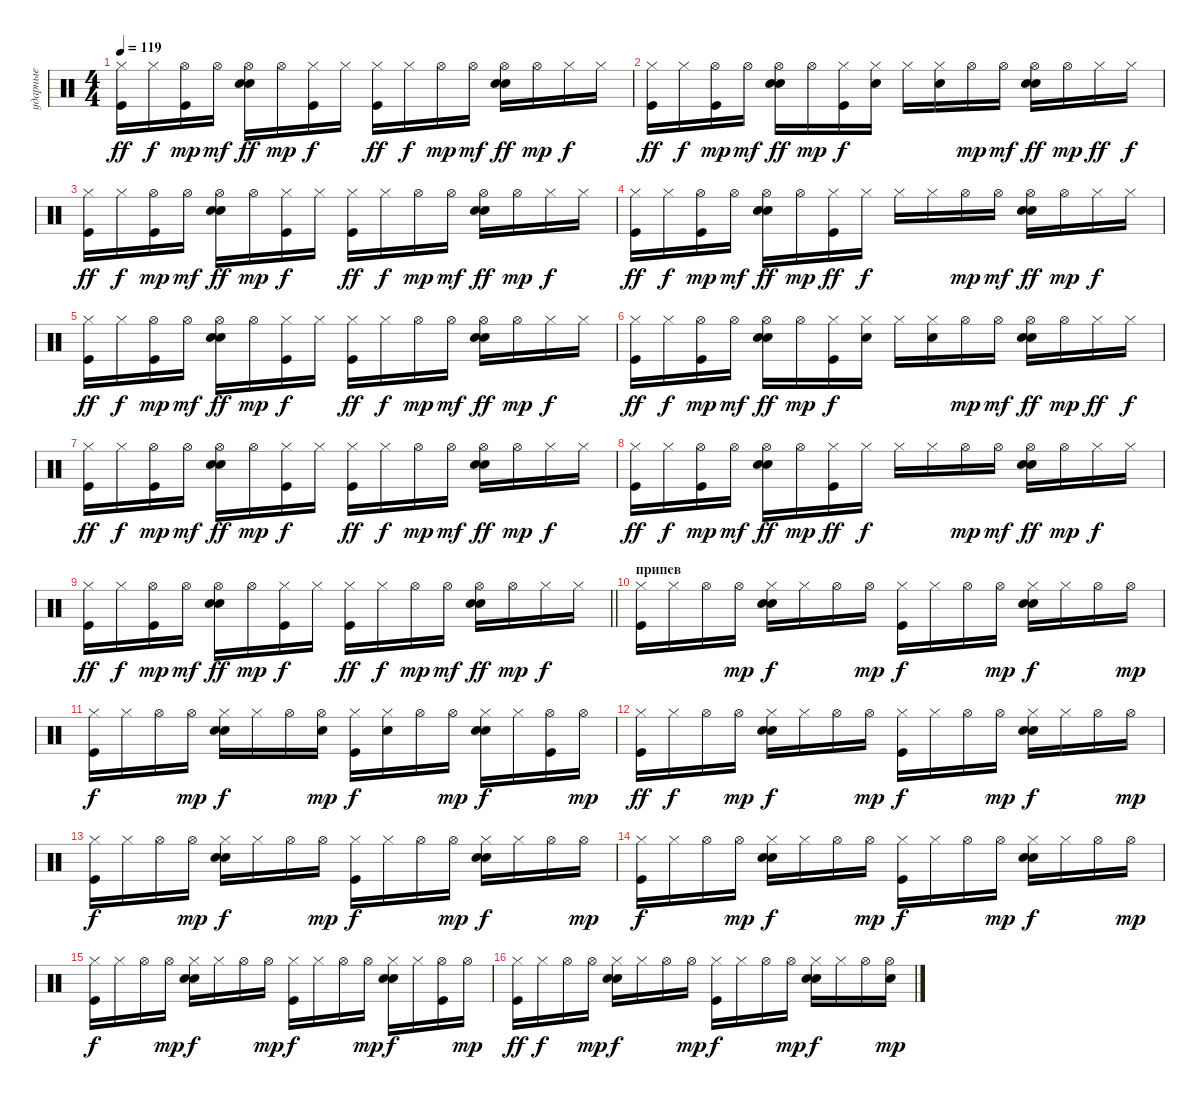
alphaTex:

\track ("ударные" "ударные") {instrument percussion}
\staff {score}
\articulation defaults
\ts (4 4)
\tempo 119
\clef neutral
\ks c
("Kick (hit)" "Hi-Hat (closed)").16{dy ff} "Hi-Hat (closed)".16{dy f} ("Kick (hit)" "Hi-Hat (open)").16{dy mp} "Hi-Hat (open)".16{dy mf} ("Electric Snare (hit)" "Hi-Hat (open)" "Hand Clap (hit)").16{dy ff} "Hi-Hat (open)".16{dy mp} ("Kick (hit)" "Hi-Hat (closed)").16{dy f} "Hi-Hat (closed)".16 ("Kick (hit)" "Hi-Hat (closed)").16{dy ff} "Hi-Hat (closed)".16{dy f} "Hi-Hat (open)".16{dy mp} "Hi-Hat (open)".16{dy mf} ("Electric Snare (hit)" "Hi-Hat (open)" "Hand Clap (hit)").16{dy ff} "Hi-Hat (open)".16{dy mp} "Hi-Hat (closed)".16{dy f} "Hi-Hat (closed)".16 |
("Kick (hit)" "Hi-Hat (closed)").16{dy ff} "Hi-Hat (closed)".16{dy f} ("Kick (hit)" "Hi-Hat (open)").16{dy mp} "Hi-Hat (open)".16{dy mf} ("Electric Snare (hit)" "Hi-Hat (open)" "Hand Clap (hit)").16{dy ff} "Hi-Hat (open)".16{dy mp} ("Kick (hit)" "Hi-Hat (closed)").16{dy f} ("Electric Snare (hit)" "Hi-Hat (closed)").16 "Hi-Hat (closed)".16 ("Electric Snare (hit)" "Hi-Hat (closed)").16 "Hi-Hat (open)".16{dy mp} "Hi-Hat (open)".16{dy mf} ("Hi-Hat (open)" "Electric Snare (hit)" "Hand Clap (hit)").16{dy ff} "Hi-Hat (open)".16{dy mp} "Hi-Hat (closed)".16{dy ff} "Hi-Hat (closed)".16{dy f} |
("Kick (hit)" "Hi-Hat (closed)").16{dy ff} "Hi-Hat (closed)".16{dy f} ("Kick (hit)" "Hi-Hat (open)").16{dy mp} "Hi-Hat (open)".16{dy mf} ("Electric Snare (hit)" "Hi-Hat (open)" "Hand Clap (hit)").16{dy ff} "Hi-Hat (open)".16{dy mp} ("Kick (hit)" "Hi-Hat (closed)").16{dy f} "Hi-Hat (closed)".16 ("Kick (hit)" "Hi-Hat (closed)").16{dy ff} "Hi-Hat (closed)".16{dy f} "Hi-Hat (open)".16{dy mp} "Hi-Hat (open)".16{dy mf} ("Electric Snare (hit)" "Hi-Hat (open)" "Hand Clap (hit)").16{dy ff} "Hi-Hat (open)".16{dy mp} "Hi-Hat (closed)".16{dy f} "Hi-Hat (closed)".16 |
("Kick (hit)" "Hi-Hat (closed)").16{dy ff} "Hi-Hat (closed)".16{dy f} ("Kick (hit)" "Hi-Hat (open)").16{dy mp} "Hi-Hat (open)".16{dy mf} ("Electric Snare (hit)" "Hi-Hat (open)" "Hand Clap (hit)").16{dy ff} "Hi-Hat (open)".16{dy mp} ("Kick (hit)" "Hi-Hat (closed)").16{dy ff} "Hi-Hat (closed)".16{dy f} "Hi-Hat (closed)".16 "Hi-Hat (closed)".16 "Hi-Hat (open)".16{dy mp} "Hi-Hat (open)".16{dy mf} ("Electric Snare (hit)" "Hi-Hat (open)" "Hand Clap (hit)").16{dy ff} "Hi-Hat (open)".16{dy mp} "Hi-Hat (closed)".16{dy f} "Hi-Hat (closed)".16 |
("Kick (hit)" "Hi-Hat (closed)").16{dy ff} "Hi-Hat (closed)".16{dy f} ("Kick (hit)" "Hi-Hat (open)").16{dy mp} "Hi-Hat (open)".16{dy mf} ("Electric Snare (hit)" "Hi-Hat (open)" "Hand Clap (hit)").16{dy ff} "Hi-Hat (open)".16{dy mp} ("Kick (hit)" "Hi-Hat (closed)").16{dy f} "Hi-Hat (closed)".16 ("Kick (hit)" "Hi-Hat (closed)").16{dy ff} "Hi-Hat (closed)".16{dy f} "Hi-Hat (open)".16{dy mp} "Hi-Hat (open)".16{dy mf} ("Electric Snare (hit)" "Hi-Hat (open)" "Hand Clap (hit)").16{dy ff} "Hi-Hat (open)".16{dy mp} "Hi-Hat (closed)".16{dy f} "Hi-Hat (closed)".16 |
("Kick (hit)" "Hi-Hat (closed)").16{dy ff} "Hi-Hat (closed)".16{dy f} ("Kick (hit)" "Hi-Hat (open)").16{dy mp} "Hi-Hat (open)".16{dy mf} ("Electric Snare (hit)" "Hi-Hat (open)" "Hand Clap (hit)").16{dy ff} "Hi-Hat (open)".16{dy mp} ("Kick (hit)" "Hi-Hat (closed)").16{dy f} ("Electric Snare (hit)" "Hi-Hat (closed)").16 "Hi-Hat (closed)".16 ("Electric Snare (hit)" "Hi-Hat (closed)").16 "Hi-Hat (open)".16{dy mp} "Hi-Hat (open)".16{dy mf} ("Hi-Hat (open)" "Electric Snare (hit)" "Hand Clap (hit)").16{dy ff} "Hi-Hat (open)".16{dy mp} "Hi-Hat (closed)".16{dy ff} "Hi-Hat (closed)".16{dy f} |
("Kick (hit)" "Hi-Hat (closed)").16{dy ff} "Hi-Hat (closed)".16{dy f} ("Kick (hit)" "Hi-Hat (open)").16{dy mp} "Hi-Hat (open)".16{dy mf} ("Electric Snare (hit)" "Hi-Hat (open)" "Hand Clap (hit)").16{dy ff} "Hi-Hat (open)".16{dy mp} ("Kick (hit)" "Hi-Hat (closed)").16{dy f} "Hi-Hat (closed)".16 ("Kick (hit)" "Hi-Hat (closed)").16{dy ff} "Hi-Hat (closed)".16{dy f} "Hi-Hat (open)".16{dy mp} "Hi-Hat (open)".16{dy mf} ("Electric Snare (hit)" "Hi-Hat (open)" "Hand Clap (hit)").16{dy ff} "Hi-Hat (open)".16{dy mp} "Hi-Hat (closed)".16{dy f} "Hi-Hat (closed)".16 |
("Kick (hit)" "Hi-Hat (closed)").16{dy ff} "Hi-Hat (closed)".16{dy f} ("Kick (hit)" "Hi-Hat (open)").16{dy mp} "Hi-Hat (open)".16{dy mf} ("Electric Snare (hit)" "Hi-Hat (open)" "Hand Clap (hit)").16{dy ff} "Hi-Hat (open)".16{dy mp} ("Kick (hit)" "Hi-Hat (closed)").16{dy ff} "Hi-Hat (closed)".16{dy f} "Hi-Hat (closed)".16 "Hi-Hat (closed)".16 "Hi-Hat (open)".16{dy mp} "Hi-Hat (open)".16{dy mf} ("Electric Snare (hit)" "Hi-Hat (open)" "Hand Clap (hit)").16{dy ff} "Hi-Hat (open)".16{dy mp} "Hi-Hat (closed)".16{dy f} "Hi-Hat (closed)".16 |
\barLineRight lightlight
("Kick (hit)" "Hi-Hat (closed)").16{dy ff} "Hi-Hat (closed)".16{dy f} ("Kick (hit)" "Hi-Hat (open)").16{dy mp} "Hi-Hat (open)".16{dy mf} ("Electric Snare (hit)" "Hi-Hat (open)" "Hand Clap (hit)").16{dy ff} "Hi-Hat (open)".16{dy mp} ("Kick (hit)" "Hi-Hat (closed)").16{dy f} "Hi-Hat (closed)".16 ("Kick (hit)" "Hi-Hat (closed)").16{dy ff} "Hi-Hat (closed)".16{dy f} "Hi-Hat (open)".16{dy mp} "Hi-Hat (open)".16{dy mf} ("Electric Snare (hit)" "Hi-Hat (open)" "Hand Clap (hit)").16{dy ff} "Hi-Hat (open)".16{dy mp} "Hi-Hat (closed)".16{dy f} "Hi-Hat (closed)".16 |
\section ("" "припев")
("Hi-Hat (closed)" "Kick (hit)").16 "Hi-Hat (closed)".16 "Hi-Hat (open)".16 "Hi-Hat (open)".16{dy mp} ("Hi-Hat (closed)" "Electric Snare (hit)" "Hand Clap (hit)").16{dy f} "Hi-Hat (closed)".16 "Hi-Hat (open)".16 "Hi-Hat (open)".16{dy mp} ("Kick (hit)" "Hi-Hat (closed)").16{dy f} "Hi-Hat (closed)".16 "Hi-Hat (open)".16 "Hi-Hat (open)".16{dy mp} ("Hi-Hat (closed)" "Electric Snare (hit)" "Hand Clap (hit)").16{dy f} "Hi-Hat (closed)".16 "Hi-Hat (open)".16 "Hi-Hat (open)".16{dy mp} |
("Hi-Hat (closed)" "Kick (hit)").16{dy f} "Hi-Hat (closed)".16 "Hi-Hat (open)".16 "Hi-Hat (open)".16{dy mp} ("Hi-Hat (closed)" "Electric Snare (hit)" "Hand Clap (hit)").16{dy f} "Hi-Hat (closed)".16 "Hi-Hat (open)".16 ("Electric Snare (hit)" "Hi-Hat (open)").16{dy mp} ("Kick (hit)" "Hi-Hat (closed)").16{dy f} ("Electric Snare (hit)" "Hi-Hat (closed)").16 "Hi-Hat (open)".16 "Hi-Hat (open)".16{dy mp} ("Hi-Hat (closed)" "Electric Snare (hit)" "Hand Clap (hit)").16{dy f} "Hi-Hat (closed)".16 ("Kick (hit)" "Hi-Hat (open)").16 "Hi-Hat (open)".16{dy mp} |
("Hi-Hat (closed)" "Kick (hit)").16{dy ff} "Hi-Hat (closed)".16{dy f} "Hi-Hat (open)".16 "Hi-Hat (open)".16{dy mp} ("Hi-Hat (closed)" "Electric Snare (hit)" "Hand Clap (hit)").16{dy f} "Hi-Hat (closed)".16 "Hi-Hat (open)".16 "Hi-Hat (open)".16{dy mp} ("Kick (hit)" "Hi-Hat (closed)").16{dy f} "Hi-Hat (closed)".16 "Hi-Hat (open)".16 "Hi-Hat (open)".16{dy mp} ("Hi-Hat (closed)" "Electric Snare (hit)" "Hand Clap (hit)").16{dy f} "Hi-Hat (closed)".16 "Hi-Hat (open)".16 "Hi-Hat (open)".16{dy mp} |
("Hi-Hat (closed)" "Kick (hit)").16{dy f} "Hi-Hat (closed)".16 "Hi-Hat (open)".16 "Hi-Hat (open)".16{dy mp} ("Hi-Hat (closed)" "Electric Snare (hit)" "Hand Clap (hit)").16{dy f} "Hi-Hat (closed)".16 "Hi-Hat (open)".16 "Hi-Hat (open)".16{dy mp} ("Kick (hit)" "Hi-Hat (closed)").16{dy f} "Hi-Hat (closed)".16 "Hi-Hat (open)".16 "Hi-Hat (open)".16{dy mp} ("Hi-Hat (closed)" "Electric Snare (hit)" "Hand Clap (hit)").16{dy f} "Hi-Hat (closed)".16 "Hi-Hat (open)".16 "Hi-Hat (open)".16{dy mp} |
("Hi-Hat (closed)" "Kick (hit)").16{dy f} "Hi-Hat (closed)".16 "Hi-Hat (open)".16 "Hi-Hat (open)".16{dy mp} ("Hi-Hat (closed)" "Electric Snare (hit)" "Hand Clap (hit)").16{dy f} "Hi-Hat (closed)".16 "Hi-Hat (open)".16 "Hi-Hat (open)".16{dy mp} ("Kick (hit)" "Hi-Hat (closed)").16{dy f} "Hi-Hat (closed)".16 "Hi-Hat (open)".16 "Hi-Hat (open)".16{dy mp} ("Hi-Hat (closed)" "Electric Snare (hit)" "Hand Clap (hit)").16{dy f} "Hi-Hat (closed)".16 "Hi-Hat (open)".16 "Hi-Hat (open)".16{dy mp} |
("Hi-Hat (closed)" "Kick (hit)").16{dy f} "Hi-Hat (closed)".16 "Hi-Hat (open)".16 "Hi-Hat (open)".16{dy mp} ("Electric Snare (hit)" "Hi-Hat (closed)" "Hand Clap (hit)").16{dy f} "Hi-Hat (closed)".16 "Hi-Hat (open)".16 "Hi-Hat (open)".16{dy mp} ("Kick (hit)" "Hi-Hat (closed)").16{dy f} "Hi-Hat (closed)".16 "Hi-Hat (open)".16 "Hi-Hat (open)".16{dy mp} ("Hi-Hat (closed)" "Electric Snare (hit)" "Hand Clap (hit)").16{dy f} "Hi-Hat (closed)".16 ("Kick (hit)" "Hi-Hat (open)").16 "Hi-Hat (open)".16{dy mp} |
("Hi-Hat (closed)" "Kick (hit)").16{dy ff} "Hi-Hat (closed)".16{dy f} "Hi-Hat (open)".16 "Hi-Hat (open)".16{dy mp} ("Hi-Hat (closed)" "Electric Snare (hit)" "Hand Clap (hit)").16{dy f} "Hi-Hat (closed)".16 "Hi-Hat (open)".16 "Hi-Hat (open)".16{dy mp} ("Kick (hit)" "Hi-Hat (closed)").16{dy f} "Hi-Hat (closed)".16 "Hi-Hat (open)".16 "Hi-Hat (open)".16{dy mp} ("Hi-Hat (closed)" "Electric Snare (hit)" "Hand Clap (hit)").16{dy f} "Hi-Hat (closed)".16 "Hi-Hat (open)".16 ("Electric Snare (hit)" "Hi-Hat (open)").16{dy mp}
